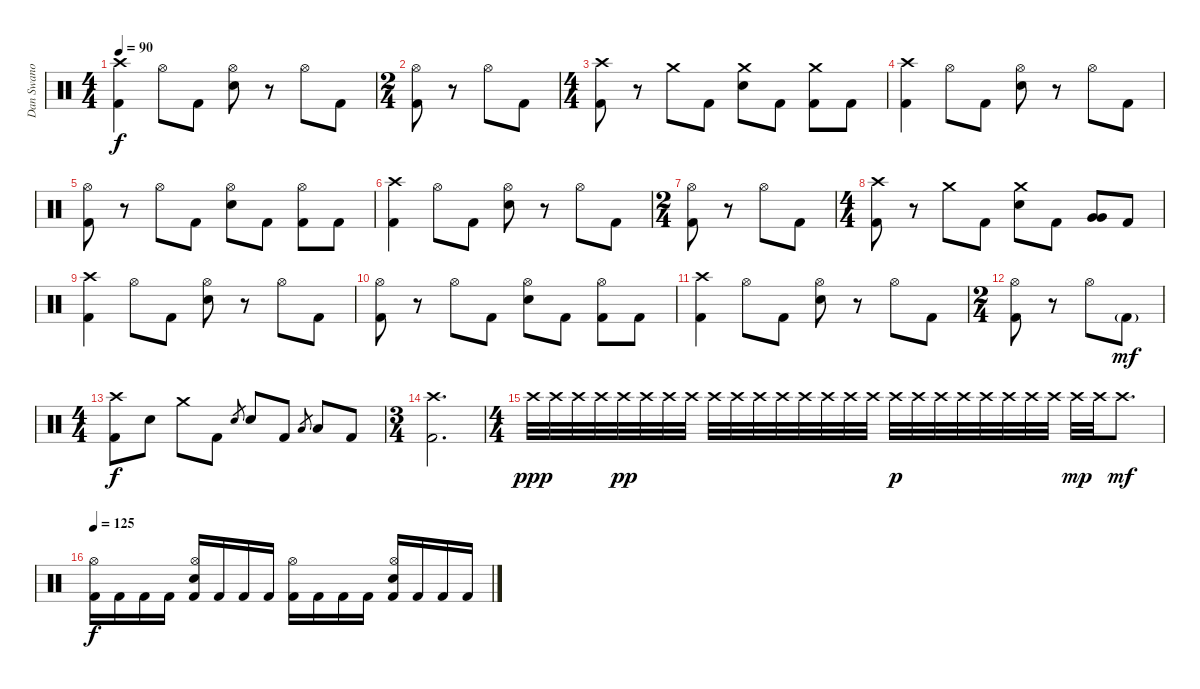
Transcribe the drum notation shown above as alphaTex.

\track ("Dan Swano" "Dan Swano") {instrument percussion}
\staff {score}
\articulation defaults
\ts (4 4)
\tempo 90
\clef neutral
\ks c
("Crash high (hit)" "Kick (hit) 2").4{dy f} "Hi-Hat (open)".8 "Kick (hit) 2".8 ("Hi-Hat (open)" "Electric Snare (hit)").8 r.8 "Hi-Hat (open)".8 "Kick (hit) 2".8 |
\ts (2 4)
("Hi-Hat (open)" "Kick (hit) 2").8 r.8 "Hi-Hat (open)".8 "Kick (hit) 2".8 |
\ts (4 4)
("Crash high (hit)" "Kick (hit) 2").8 r.8 "Crash medium (hit)".8 "Kick (hit) 2".8 ("Crash medium (hit)" "Electric Snare (hit)").8 "Kick (hit) 2".8 ("Crash medium (hit)" "Kick (hit) 2").8 "Kick (hit) 2".8 |
("Crash high (hit)" "Kick (hit) 2").4 "Hi-Hat (open)".8 "Kick (hit) 2".8 ("Hi-Hat (open)" "Electric Snare (hit)").8 r.8 "Hi-Hat (open)".8 "Kick (hit) 2".8 |
("Hi-Hat (open)" "Kick (hit) 2").8 r.8 "Hi-Hat (open)".8 "Kick (hit) 2".8 ("Hi-Hat (open)" "Electric Snare (hit)").8 "Kick (hit) 2".8 ("Hi-Hat (open)" "Kick (hit) 2").8 "Kick (hit) 2".8 |
("Crash high (hit)" "Kick (hit) 2").4 "Hi-Hat (open)".8 "Kick (hit) 2".8 ("Hi-Hat (open)" "Electric Snare (hit)").8 r.8 "Hi-Hat (open)".8 "Kick (hit) 2".8 |
\ts (2 4)
("Hi-Hat (open)" "Kick (hit) 2").8 r.8 "Hi-Hat (open)".8 "Kick (hit) 2".8 |
\ts (4 4)
("Crash high (hit)" "Kick (hit) 2").8 r.8 "Crash medium (hit)".8 "Kick (hit) 2".8 ("Crash medium (hit)" "Electric Snare (hit)").8 "Kick (hit) 2".8 ("Very Low Tom (hit)" "Very Low Tom (hit)").8 "Kick (hit) 2".8 |
("Crash high (hit)" "Kick (hit) 2").4 "Hi-Hat (open)".8 "Kick (hit) 2".8 ("Hi-Hat (open)" "Electric Snare (hit)").8 r.8 "Hi-Hat (open)".8 "Kick (hit) 2".8 |
("Hi-Hat (open)" "Kick (hit) 2").8 r.8 "Hi-Hat (open)".8 "Kick (hit) 2".8 ("Hi-Hat (open)" "Electric Snare (hit)").8 "Kick (hit) 2".8 ("Hi-Hat (open)" "Kick (hit) 2").8 "Kick (hit) 2".8 |
("Crash high (hit)" "Kick (hit) 2").4 "Hi-Hat (open)".8 "Kick (hit) 2".8 ("Hi-Hat (open)" "Electric Snare (hit)").8 r.8 "Hi-Hat (open)".8 "Kick (hit) 2".8 |
\ts (2 4)
("Hi-Hat (open)" "Kick (hit) 2").8 r.8 "Hi-Hat (open)".8 "Kick (hit) 2"{g}.8{dy mf} |
\ts (4 4)
("Crash high (hit)" "Kick (hit) 2").8{dy f} "Electric Snare (hit)".8 "Crash medium (hit)".8 "Kick (hit) 2".8 "Electric Snare (hit)".8{gr} "Electric Snare (hit)".8 "Kick (hit) 2".8 "Low Floor Tom (hit)".8{gr} "Low Floor Tom (hit)".8 "Kick (hit) 2".8 |
\ts (3 4)
("Crash high (hit)" "Kick (hit) 2").2{d} |
\ts (4 4)
"Crash high (hit)".32{dy ppp} "Crash high (hit)".32 "Crash high (hit)".32 "Crash high (hit)".32 "Crash high (hit)".32{dy pp} "Crash high (hit)".32 "Crash high (hit)".32 "Crash high (hit)".32 "Crash high (hit)".32 "Crash high (hit)".32 "Crash high (hit)".32 "Crash high (hit)".32 "Crash high (hit)".32 "Crash high (hit)".32 "Crash high (hit)".32 "Crash high (hit)".32 "Crash high (hit)".32{dy p} "Crash high (hit)".32 "Crash high (hit)".32 "Crash high (hit)".32 "Crash high (hit)".32 "Crash high (hit)".32 "Crash high (hit)".32 "Crash high (hit)".32 "Crash high (hit)".32{dy mp} "Crash high (hit)".32 "Crash high (hit)".8{d dy mf} |
\tempo 125
("Hi-Hat (open)" "Kick (hit) 2").16{dy f} "Kick (hit) 2".16 "Kick (hit) 2".16 "Kick (hit) 2".16 ("Hi-Hat (open)" "Electric Snare (hit)" "Kick (hit) 2").16 "Kick (hit) 2".16 "Kick (hit) 2".16 "Kick (hit) 2".16 ("Hi-Hat (open)" "Kick (hit) 2").16 "Kick (hit) 2".16 "Kick (hit) 2".16 "Kick (hit) 2".16 ("Hi-Hat (open)" "Electric Snare (hit)" "Kick (hit) 2").16 "Kick (hit) 2".16 "Kick (hit) 2".16 "Kick (hit) 2".16
